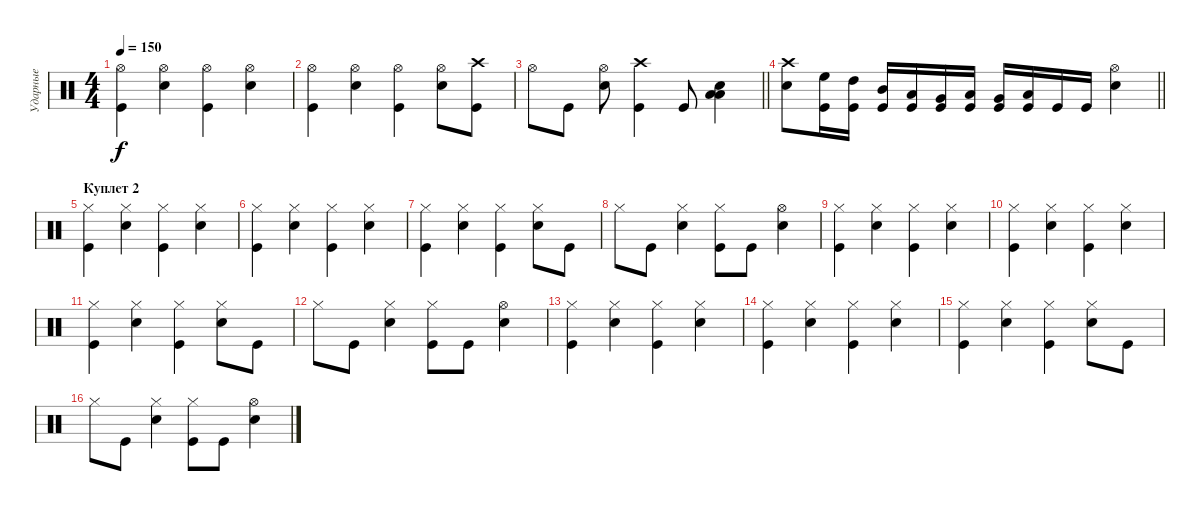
\track ("Ударные" "Ударные") {instrument percussion}
\staff {score}
\articulation defaults
\ts (4 4)
\tempo 150
\clef neutral
\ks c
("Hi-Hat (open)" "Kick (hit)").4{dy f} ("Hi-Hat (open)" "Snare (hit) 2").4 ("Hi-Hat (open)" "Kick (hit)").4 ("Hi-Hat (open)" "Snare (hit) 2").4 |
("Hi-Hat (open)" "Kick (hit)").4 ("Hi-Hat (open)" "Snare (hit) 2").4 ("Hi-Hat (open)" "Kick (hit)").4 ("Hi-Hat (open)" "Snare (hit) 2").8 ("Crash high (hit)" "Kick (hit)").8 |
\barLineRight lightlight "Hi-Hat (open)".8 "Kick (hit)".8
("Hi-Hat (open)" "Snare (hit) 2").8 ("Crash high (hit)" "Kick (hit)").4 "Kick (hit)".8 ("Low Tom (hit)" "Low Tom (hit)" "Snare (hit) 2").4 |
\barLineRight lightlight
("Crash high (hit)" "Snare (hit) 2").8 ("High Floor Tom (hit)" "Kick (hit)").16 ("High Tom (hit)" "Kick (hit)").16 ("Mid Tom (hit)" "Kick (hit)").16 ("Low Tom (hit)" "Kick (hit)").16 ("Very Low Tom (hit)" "Kick (hit)").16 ("Low Floor Tom (hit)" "Kick (hit)").16 ("Very Low Tom (hit)" "Kick (hit)").16 ("Low Floor Tom (hit)" "Kick (hit)").16 "Kick (hit)".16 "Kick (hit)".16 ("Hi-Hat (open)" "Snare (hit) 2").4 |
\section ("" "Куплет 2")
("Hi-Hat (closed)" "Kick (hit)").4 ("Hi-Hat (closed)" "Snare (hit) 2").4 ("Hi-Hat (closed)" "Kick (hit)").4 ("Hi-Hat (closed)" "Snare (hit) 2").4 |
("Hi-Hat (closed)" "Kick (hit)").4 ("Hi-Hat (closed)" "Snare (hit) 2").4 ("Hi-Hat (closed)" "Kick (hit)").4 ("Hi-Hat (closed)" "Snare (hit) 2").4 |
("Hi-Hat (closed)" "Kick (hit)").4 ("Hi-Hat (closed)" "Snare (hit) 2").4 ("Hi-Hat (closed)" "Kick (hit)").4 ("Hi-Hat (closed)" "Snare (hit) 2").8 "Kick (hit)".8 |
"Hi-Hat (closed)".8 "Kick (hit)".8 ("Hi-Hat (closed)" "Snare (hit) 2").4 ("Hi-Hat (closed)" "Kick (hit)").8 "Kick (hit)".8 ("Hi-Hat (open)" "Snare (hit) 2").4 |
("Hi-Hat (closed)" "Kick (hit)").4 ("Hi-Hat (closed)" "Snare (hit) 2").4 ("Hi-Hat (closed)" "Kick (hit)").4 ("Hi-Hat (closed)" "Snare (hit) 2").4 |
("Hi-Hat (closed)" "Kick (hit)").4 ("Hi-Hat (closed)" "Snare (hit) 2").4 ("Hi-Hat (closed)" "Kick (hit)").4 ("Hi-Hat (closed)" "Snare (hit) 2").4 |
("Hi-Hat (closed)" "Kick (hit)").4 ("Hi-Hat (closed)" "Snare (hit) 2").4 ("Hi-Hat (closed)" "Kick (hit)").4 ("Hi-Hat (closed)" "Snare (hit) 2").8 "Kick (hit)".8 |
"Hi-Hat (closed)".8 "Kick (hit)".8 ("Hi-Hat (closed)" "Snare (hit) 2").4 ("Hi-Hat (closed)" "Kick (hit)").8 "Kick (hit)".8 ("Hi-Hat (open)" "Snare (hit) 2").4 |
("Hi-Hat (closed)" "Kick (hit)").4 ("Hi-Hat (closed)" "Snare (hit) 2").4 ("Hi-Hat (closed)" "Kick (hit)").4 ("Hi-Hat (closed)" "Snare (hit) 2").4 |
("Hi-Hat (closed)" "Kick (hit)").4 ("Hi-Hat (closed)" "Snare (hit) 2").4 ("Hi-Hat (closed)" "Kick (hit)").4 ("Hi-Hat (closed)" "Snare (hit) 2").4 |
("Hi-Hat (closed)" "Kick (hit)").4 ("Hi-Hat (closed)" "Snare (hit) 2").4 ("Hi-Hat (closed)" "Kick (hit)").4 ("Hi-Hat (closed)" "Snare (hit) 2").8 "Kick (hit)".8 |
"Hi-Hat (closed)".8 "Kick (hit)".8 ("Hi-Hat (closed)" "Snare (hit) 2").4 ("Hi-Hat (closed)" "Kick (hit)").8 "Kick (hit)".8 ("Hi-Hat (open)" "Snare (hit) 2").4
